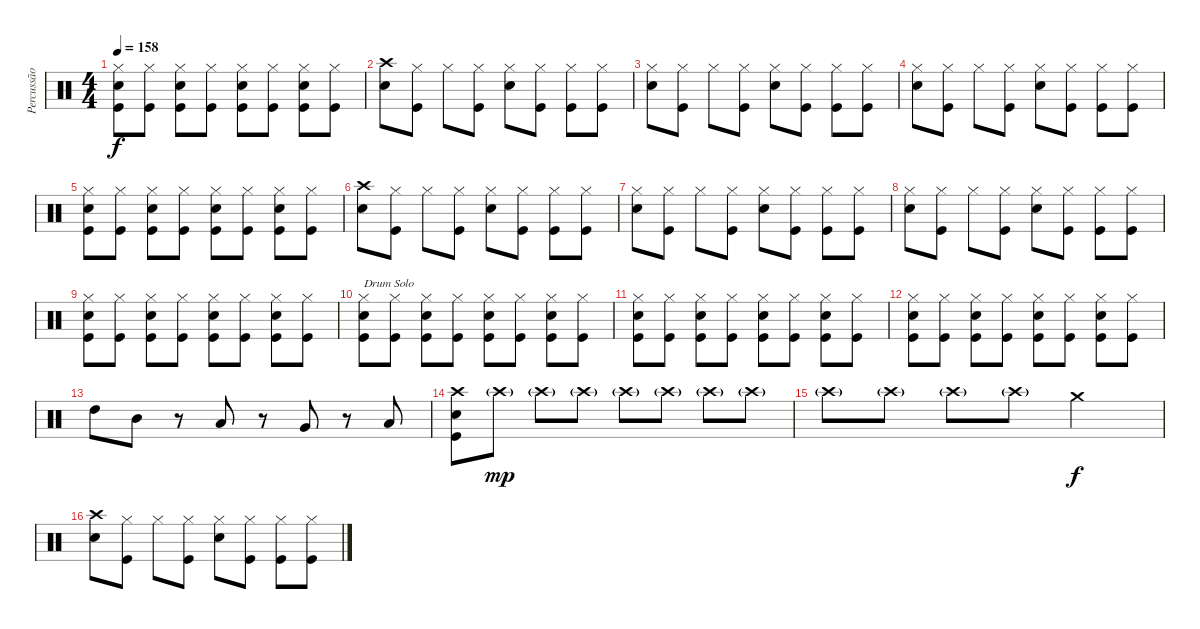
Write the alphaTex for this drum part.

\track ("Percussão" "Percussão") {instrument percussion}
\staff {score}
\articulation defaults
\ts (4 4)
\tempo 158
\clef neutral
\ks c
("Hi-Hat (closed)" "Electric Snare (hit)" "Kick (hit)").8{dy f} ("Hi-Hat (closed)" "Kick (hit)").8 ("Hi-Hat (closed)" "Electric Snare (hit)" "Kick (hit)").8 ("Hi-Hat (closed)" "Kick (hit)").8 ("Hi-Hat (closed)" "Electric Snare (hit)" "Kick (hit)").8 ("Hi-Hat (closed)" "Kick (hit)").8 ("Hi-Hat (closed)" "Electric Snare (hit)" "Kick (hit)").8 ("Hi-Hat (closed)" "Kick (hit)").8 |
("Crash high (hit)" "Electric Snare (hit)").8 ("Hi-Hat (closed)" "Kick (hit)").8 "Hi-Hat (closed)".8 ("Hi-Hat (closed)" "Kick (hit)").8 ("Hi-Hat (closed)" "Electric Snare (hit)").8 ("Hi-Hat (closed)" "Kick (hit)").8 ("Hi-Hat (closed)" "Kick (hit)").8 ("Hi-Hat (closed)" "Kick (hit)").8 |
("Hi-Hat (closed)" "Electric Snare (hit)").8 ("Hi-Hat (closed)" "Kick (hit)").8 "Hi-Hat (closed)".8 ("Hi-Hat (closed)" "Kick (hit)").8 ("Hi-Hat (closed)" "Electric Snare (hit)").8 ("Hi-Hat (closed)" "Kick (hit)").8 ("Hi-Hat (closed)" "Kick (hit)").8 ("Hi-Hat (closed)" "Kick (hit)").8 |
("Hi-Hat (closed)" "Electric Snare (hit)").8 ("Hi-Hat (closed)" "Kick (hit)").8 "Hi-Hat (closed)".8 ("Hi-Hat (closed)" "Kick (hit)").8 ("Hi-Hat (closed)" "Electric Snare (hit)").8 ("Hi-Hat (closed)" "Kick (hit)").8 ("Hi-Hat (closed)" "Kick (hit)").8 ("Hi-Hat (closed)" "Kick (hit)").8 |
("Hi-Hat (closed)" "Electric Snare (hit)" "Kick (hit)").8 ("Hi-Hat (closed)" "Kick (hit)").8 ("Hi-Hat (closed)" "Electric Snare (hit)" "Kick (hit)").8 ("Hi-Hat (closed)" "Kick (hit)").8 ("Hi-Hat (closed)" "Electric Snare (hit)" "Kick (hit)").8 ("Hi-Hat (closed)" "Kick (hit)").8 ("Hi-Hat (closed)" "Electric Snare (hit)" "Kick (hit)").8 ("Hi-Hat (closed)" "Kick (hit)").8 |
("Crash high (hit)" "Electric Snare (hit)").8 ("Hi-Hat (closed)" "Kick (hit)").8 "Hi-Hat (closed)".8 ("Hi-Hat (closed)" "Kick (hit)").8 ("Hi-Hat (closed)" "Electric Snare (hit)").8 ("Hi-Hat (closed)" "Kick (hit)").8 ("Hi-Hat (closed)" "Kick (hit)").8 ("Hi-Hat (closed)" "Kick (hit)").8 |
("Hi-Hat (closed)" "Electric Snare (hit)").8 ("Hi-Hat (closed)" "Kick (hit)").8 "Hi-Hat (closed)".8 ("Hi-Hat (closed)" "Kick (hit)").8 ("Hi-Hat (closed)" "Electric Snare (hit)").8 ("Hi-Hat (closed)" "Kick (hit)").8 ("Hi-Hat (closed)" "Kick (hit)").8 ("Hi-Hat (closed)" "Kick (hit)").8 |
("Hi-Hat (closed)" "Electric Snare (hit)").8 ("Hi-Hat (closed)" "Kick (hit)").8 "Hi-Hat (closed)".8 ("Hi-Hat (closed)" "Kick (hit)").8 ("Hi-Hat (closed)" "Electric Snare (hit)").8 ("Hi-Hat (closed)" "Kick (hit)").8 ("Hi-Hat (closed)" "Kick (hit)").8 ("Hi-Hat (closed)" "Kick (hit)").8 |
("Hi-Hat (closed)" "Electric Snare (hit)" "Kick (hit)").8 ("Hi-Hat (closed)" "Kick (hit)").8 ("Hi-Hat (closed)" "Electric Snare (hit)" "Kick (hit)").8 ("Hi-Hat (closed)" "Kick (hit)").8 ("Hi-Hat (closed)" "Electric Snare (hit)" "Kick (hit)").8 ("Hi-Hat (closed)" "Kick (hit)").8 ("Hi-Hat (closed)" "Electric Snare (hit)" "Kick (hit)").8 ("Hi-Hat (closed)" "Kick (hit)").8 |
("Hi-Hat (closed)" "Electric Snare (hit)" "Kick (hit)").8{txt "Drum Solo"} ("Hi-Hat (closed)" "Kick (hit)").8 ("Hi-Hat (closed)" "Electric Snare (hit)" "Kick (hit)").8 ("Hi-Hat (closed)" "Kick (hit)").8 ("Hi-Hat (closed)" "Electric Snare (hit)" "Kick (hit)").8 ("Hi-Hat (closed)" "Kick (hit)").8 ("Hi-Hat (closed)" "Electric Snare (hit)" "Kick (hit)").8 ("Hi-Hat (closed)" "Kick (hit)").8 |
("Hi-Hat (closed)" "Electric Snare (hit)" "Kick (hit)").8 ("Hi-Hat (closed)" "Kick (hit)").8 ("Hi-Hat (closed)" "Electric Snare (hit)" "Kick (hit)").8 ("Hi-Hat (closed)" "Kick (hit)").8 ("Hi-Hat (closed)" "Electric Snare (hit)" "Kick (hit)").8 ("Hi-Hat (closed)" "Kick (hit)").8 ("Hi-Hat (closed)" "Electric Snare (hit)" "Kick (hit)").8 ("Hi-Hat (closed)" "Kick (hit)").8 |
("Hi-Hat (closed)" "Electric Snare (hit)" "Kick (hit)").8 ("Hi-Hat (closed)" "Kick (hit)").8 ("Hi-Hat (closed)" "Electric Snare (hit)" "Kick (hit)").8 ("Hi-Hat (closed)" "Kick (hit)").8 ("Hi-Hat (closed)" "Electric Snare (hit)" "Kick (hit)").8 ("Hi-Hat (closed)" "Kick (hit)").8 ("Hi-Hat (closed)" "Electric Snare (hit)" "Kick (hit)").8 ("Hi-Hat (closed)" "Kick (hit)").8 |
"High Tom (hit)".8 "Mid Tom (hit)".8 r.8 "Low Tom (hit)".8 r.8 "Very Low Tom (hit)".8 r.8 "Low Floor Tom (hit)".8 |
("Crash high (hit)" "Electric Snare (hit)" "Kick (hit)").8 "Crash high (hit)"{g}.8{dy mp} "Crash high (hit)"{g}.8 "Crash high (hit)"{g}.8 "Crash high (hit)"{g}.8 "Crash high (hit)"{g}.8 "Crash high (hit)"{g}.8 "Crash high (hit)"{g}.8 |
"Crash high (hit)"{g}.8 "Crash high (hit)"{g}.8 "Crash high (hit)"{g}.8 "Crash high (hit)"{g}.8 "Crash medium (hit)".2{dy f} |
("Crash high (hit)" "Electric Snare (hit)").8 ("Hi-Hat (closed)" "Kick (hit)").8 "Hi-Hat (closed)".8 ("Hi-Hat (closed)" "Kick (hit)").8 ("Hi-Hat (closed)" "Electric Snare (hit)").8 ("Hi-Hat (closed)" "Kick (hit)").8 ("Hi-Hat (closed)" "Kick (hit)").8 ("Hi-Hat (closed)" "Kick (hit)").8
